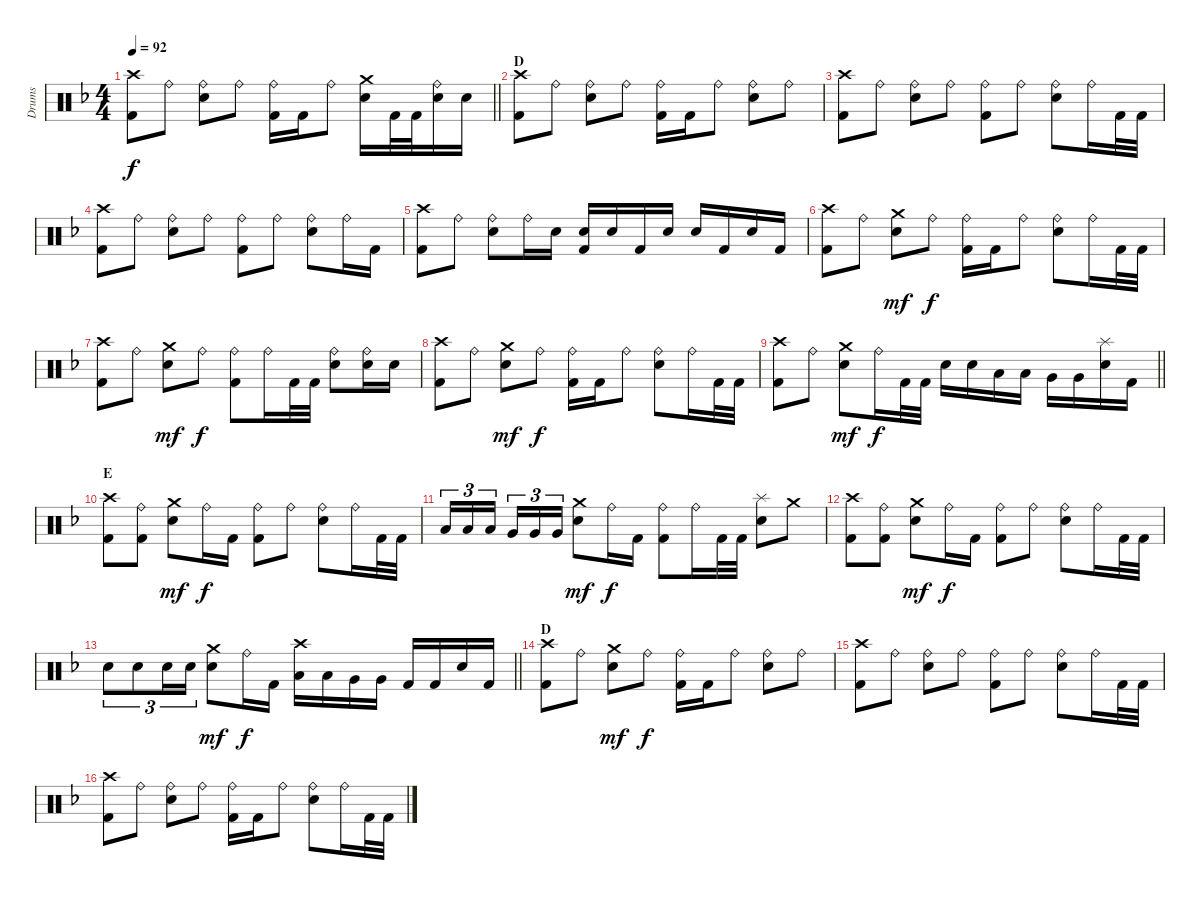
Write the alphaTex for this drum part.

\track ("Drums" "Drums") {instrument percussion}
\staff {score}
\articulation defaults
\ts (4 4)
\tempo 92
\clef neutral
\barLineRight lightlight
\ks f
("Crash high (hit)" "Kick (hit) 2").8{dy f} "Ride (bell)".8 ("Ride (bell)" "Snare (hit) 2").8 "Ride (bell)".8 ("Ride (bell)" "Kick (hit) 2").16 "Kick (hit) 2".16 "Ride (bell)".8 ("Crash medium (hit)" "Snare (hit) 2").16 "Kick (hit) 2".32 "Kick (hit) 2".32 ("Ride (bell)" "Snare (hit) 2").16 "Snare (hit) 2".16 |
\section ("" "D")
("Crash high (hit)" "Kick (hit) 2").8 "Ride (bell)".8 ("Ride (bell)" "Snare (hit) 2").8 "Ride (bell)".8 ("Ride (bell)" "Kick (hit) 2").16 "Kick (hit) 2".16 "Ride (bell)".8 ("Ride (bell)" "Snare (hit) 2").8 "Ride (bell)".8 |
("Crash high (hit)" "Kick (hit) 2").8 "Ride (bell)".8 ("Ride (bell)" "Snare (hit) 2").8 "Ride (bell)".8 ("Ride (bell)" "Kick (hit) 2").8 "Ride (bell)".8 ("Ride (bell)" "Snare (hit) 2").8 "Ride (bell)".16 "Kick (hit) 2".32 "Kick (hit) 2".32 |
("Crash high (hit)" "Kick (hit) 2").8 "Ride (bell)".8 ("Ride (bell)" "Snare (hit) 2").8 "Ride (bell)".8 ("Ride (bell)" "Kick (hit) 2").8 "Ride (bell)".8 ("Ride (bell)" "Snare (hit) 2").8 "Ride (bell)".16 "Kick (hit) 2".16 |
("Crash high (hit)" "Kick (hit) 2").8 "Ride (bell)".8 ("Ride (bell)" "Snare (hit) 2").8 "Ride (bell)".16 "Snare (hit) 2".16 ("Kick (hit) 2" "Snare (hit) 2").16 "Snare (hit) 2".16 "Kick (hit) 2".16 "Snare (hit) 2".16 "Snare (hit) 2".16 "Kick (hit) 2".16 "Snare (hit) 2".16 "Kick (hit) 2".16 |
("Crash high (hit)" "Kick (hit) 2").8 "Ride (bell)".8 ("Crash medium (hit)" "Snare (hit) 2").8{dy mf} "Ride (bell)".8{dy f} ("Ride (bell)" "Kick (hit) 2").16 "Kick (hit) 2".16 "Ride (bell)".8 ("Ride (bell)" "Snare (hit) 2").8 "Ride (bell)".16 "Kick (hit) 2".32 "Kick (hit) 2".32 |
("Crash high (hit)" "Kick (hit) 2").8 "Ride (bell)".8 ("Crash medium (hit)" "Snare (hit) 2").8{dy mf} "Ride (bell)".8{dy f} ("Ride (bell)" "Kick (hit) 2").8 "Ride (bell)".16 "Kick (hit) 2".32 "Kick (hit) 2".32 ("Ride (bell)" "Snare (hit) 2").8 ("Ride (bell)" "Snare (hit) 2").16 "Snare (hit) 2".16 |
("Crash high (hit)" "Kick (hit) 2").8 "Ride (bell)".8 ("Crash medium (hit)" "Snare (hit) 2").8{dy mf} "Ride (bell)".8{dy f} ("Ride (bell)" "Kick (hit) 2").16 "Kick (hit) 2".16 "Ride (bell)".8 ("Ride (bell)" "Snare (hit) 2").8 "Ride (bell)".16 "Kick (hit) 2".32 "Kick (hit) 2".32 |
\barLineRight lightlight
("Crash high (hit)" "Kick (hit) 2").8 "Ride (bell)".8 ("Crash medium (hit)" "Snare (hit) 2").8{dy mf} "Ride (bell)".16{dy f} "Kick (hit) 2".32 "Kick (hit) 2".32 "Snare (hit) 2".16 "Snare (hit) 2".16 "Low Tom (hit)".16 "Low Tom (hit)".16 "Very Low Tom (hit)".16 "Very Low Tom (hit)".16 ("Snare (hit) 2" "Splash (hit)").16 "Kick (hit) 2".16 |
\section ("" "E")
("Crash high (hit)" "Kick (hit) 2").8 ("Ride (bell)" "Kick (hit) 2").8 ("Crash medium (hit)" "Snare (hit) 2").8{dy mf} "Ride (bell)".16{dy f} "Kick (hit) 2".16 ("Ride (bell)" "Kick (hit) 2").8 "Ride (bell)".8 ("Ride (bell)" "Snare (hit) 2").8 "Ride (bell)".16 "Kick (hit) 2".32 "Kick (hit) 2".32 |
"Low Tom (hit)".16{tu (3 2)} "Low Tom (hit)".16{tu (3 2)} "Low Tom (hit)".16{tu (3 2) beam splitsecondary} "Very Low Tom (hit)".16{tu (3 2)} "Very Low Tom (hit)".16{tu (3 2)} "Very Low Tom (hit)".16{tu (3 2)} ("Crash medium (hit)" "Snare (hit) 2").8{dy mf} "Ride (bell)".16{dy f} "Kick (hit) 2".16 ("Ride (bell)" "Kick (hit) 2").8 "Ride (bell)".16 "Kick (hit) 2".32 "Kick (hit) 2".32 ("Splash (hit)" "Snare (hit) 2").8 "Crash medium (hit)".8 |
("Crash high (hit)" "Kick (hit) 2").8 ("Ride (bell)" "Kick (hit) 2").8 ("Crash medium (hit)" "Snare (hit) 2").8{dy mf} "Ride (bell)".16{dy f} "Kick (hit) 2".16 ("Ride (bell)" "Kick (hit) 2").8 "Ride (bell)".8 ("Ride (bell)" "Snare (hit) 2").8 "Ride (bell)".16 "Kick (hit) 2".32 "Kick (hit) 2".32 |
\barLineRight lightlight "Snare (hit) 2".8{tu (3 2)} "Snare (hit) 2".8{tu (3 2)} "Snare (hit) 2".16{tu (3 2)} "Snare (hit) 2".16{tu (3 2)}
("Crash medium (hit)" "Snare (hit) 2").8{dy mf} "Ride (bell)".16{dy f} "Kick (hit) 2".16 ("Low Tom (hit)" "Crash high (hit)").16 "Low Tom (hit)".16 "Very Low Tom (hit)".16 "Very Low Tom (hit)".16 "Kick (hit) 2".16 "Kick (hit) 2".16 "Snare (hit) 2".16 "Kick (hit) 2".16 |
\section ("" "D")
("Kick (hit) 2" "Crash high (hit)").8 "Ride (bell)".8 ("Crash medium (hit)" "Snare (hit) 2").8{dy mf} "Ride (bell)".8{dy f} ("Ride (bell)" "Kick (hit) 2").16 "Kick (hit) 2".16 "Ride (bell)".8 ("Ride (bell)" "Snare (hit) 2").8 "Ride (bell)".8 |
("Kick (hit) 2" "Crash high (hit)").8 "Ride (bell)".8 ("Ride (bell)" "Snare (hit) 2").8 "Ride (bell)".8 ("Ride (bell)" "Kick (hit) 2").8 "Ride (bell)".8 ("Ride (bell)" "Snare (hit) 2").8 "Ride (bell)".16 "Kick (hit) 2".32 "Kick (hit) 2".32 |
("Kick (hit) 2" "Crash high (hit)").8 "Ride (bell)".8 ("Ride (bell)" "Snare (hit) 2").8 "Ride (bell)".8 ("Ride (bell)" "Kick (hit) 2").16 "Kick (hit) 2".16 "Ride (bell)".8 ("Ride (bell)" "Snare (hit) 2").8 "Ride (bell)".16 "Kick (hit) 2".32 "Kick (hit) 2".32
